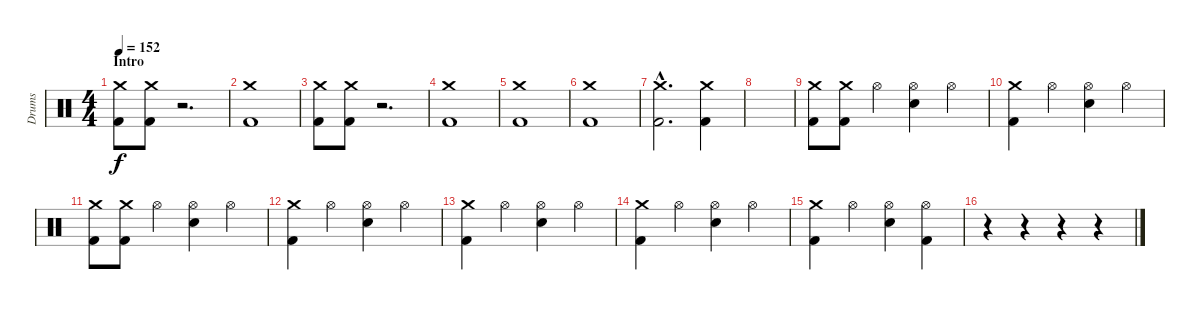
\track ("Drums" "Drums") {instrument percussion}
\staff {score}
\articulation defaults
\ts (4 4)
\section ("" "Intro")
\tempo 152
\clef neutral
\ks c
("Crash medium (hit)" "Kick (hit) 2").8{dy f} ("Crash medium (hit)" "Kick (hit) 2").8 r.2{d} |
("Crash medium (hit)" "Kick (hit) 2").1 |
("Crash medium (hit)" "Kick (hit) 2").8 ("Crash medium (hit)" "Kick (hit) 2").8 r.2{d} |
("Crash medium (hit)" "Kick (hit) 2").1 |
("Crash medium (hit)" "Kick (hit) 2").1 |
("Crash medium (hit)" "Kick (hit) 2").1 |
("Crash medium (hit)"{hac} "Kick (hit) 2"{hac}).2{d} ("Crash medium (hit)" "Kick (hit) 2").4 |
|
("Crash medium (hit)" "Kick (hit) 2").8 ("Crash medium (hit)" "Kick (hit) 2").8 "Hi-Hat (open)".4 ("Hi-Hat (open)" "Electric Snare (hit)").4 "Hi-Hat (open)".4 |
("Crash medium (hit)" "Kick (hit) 2").4 "Hi-Hat (open)".4 ("Hi-Hat (open)" "Electric Snare (hit)").4 "Hi-Hat (open)".4 |
("Crash medium (hit)" "Kick (hit) 2").8 ("Crash medium (hit)" "Kick (hit) 2").8 "Hi-Hat (open)".4 ("Hi-Hat (open)" "Electric Snare (hit)").4 "Hi-Hat (open)".4 |
("Crash medium (hit)" "Kick (hit) 2").4 "Hi-Hat (open)".4 ("Hi-Hat (open)" "Electric Snare (hit)").4 "Hi-Hat (open)".4 |
("Crash medium (hit)" "Kick (hit) 2").4 "Hi-Hat (open)".4 ("Hi-Hat (open)" "Electric Snare (hit)").4 "Hi-Hat (open)".4 |
("Crash medium (hit)" "Kick (hit) 2").4 "Hi-Hat (open)".4 ("Hi-Hat (open)" "Electric Snare (hit)").4 "Hi-Hat (open)".4 |
("Crash medium (hit)" "Kick (hit) 2").4 "Hi-Hat (open)".4 ("Hi-Hat (open)" "Electric Snare (hit)").4 ("Hi-Hat (open)" "Kick (hit) 2").4 |
r.4 r.4 r.4 r.4
